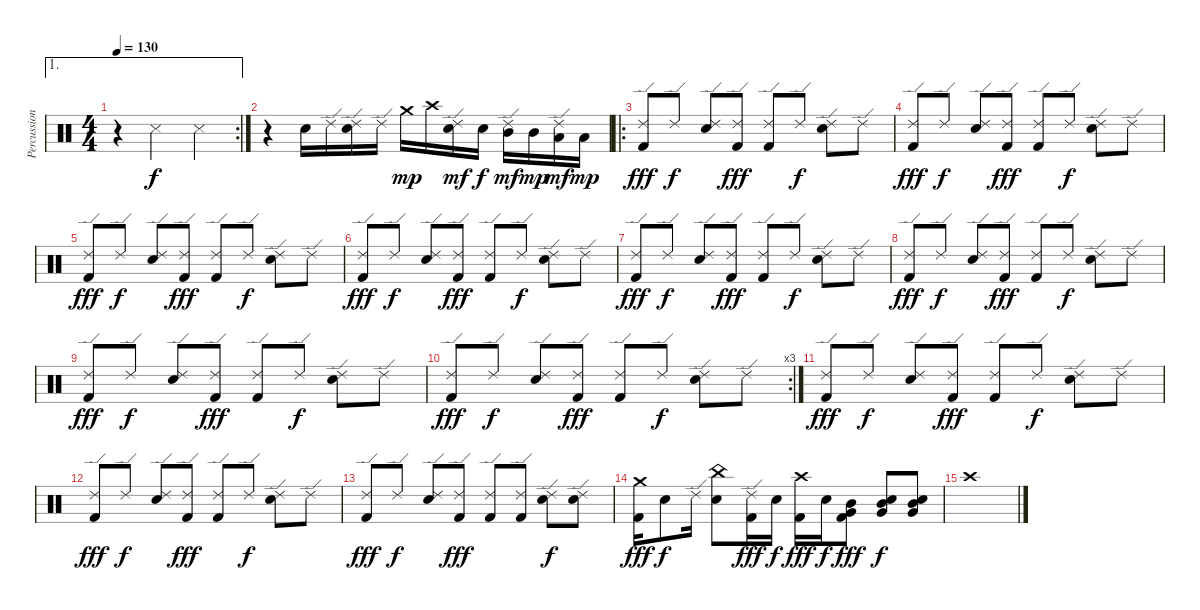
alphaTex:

\track ("Percussion" "Percussion") {instrument percussion}
\staff {score}
\articulation defaults
\ae 1
\rc 2
\ts (4 4)
\tempo 130
\clef neutral
\ks c
r.4{dy f} "Snare (side stick) 3".2 "Snare (side stick) 3".4 |
r.4 "Electric Snare (hit)".16 "Ride (edge) 2".16 ("Ride (edge) 2" "Electric Snare (hit)").16 "Ride (edge) 2".16 "Crash medium (hit)".16{dy mp} "Crash high (hit)".16 ("Ride (edge) 2" "Electric Snare (hit)").16{dy mf} "Electric Snare (hit)".16{dy f} ("Mid Tom (hit)" "Ride (edge) 2").16{dy mf} "Mid Tom (hit)".16{dy mp} ("Low Tom (hit)" "Ride (edge) 2").16{dy mf} "Low Tom (hit)".16{dy mp} |
\ro
("Ride (edge) 2" "Kick (hit) 2").8{dy fff} "Ride (edge) 2".8{dy f} ("Ride (edge) 2" "Electric Snare (hit)").8 ("Ride (edge) 2" "Kick (hit) 2").8{dy fff} ("Ride (edge) 2" "Kick (hit) 2").8 "Ride (edge) 2".8{dy f} ("Ride (edge) 2" "Electric Snare (hit)").8 "Ride (edge) 2".8 |
("Ride (edge) 2" "Kick (hit) 2").8{dy fff} "Ride (edge) 2".8{dy f} ("Ride (edge) 2" "Electric Snare (hit)").8 ("Ride (edge) 2" "Kick (hit) 2").8{dy fff} ("Ride (edge) 2" "Kick (hit) 2").8 "Ride (edge) 2".8{dy f} ("Ride (edge) 2" "Electric Snare (hit)").8 "Ride (edge) 2".8 |
("Ride (edge) 2" "Kick (hit) 2").8{dy fff} "Ride (edge) 2".8{dy f} ("Ride (edge) 2" "Electric Snare (hit)").8 ("Ride (edge) 2" "Kick (hit) 2").8{dy fff} ("Ride (edge) 2" "Kick (hit) 2").8 "Ride (edge) 2".8{dy f} ("Ride (edge) 2" "Electric Snare (hit)").8 "Ride (edge) 2".8 |
("Ride (edge) 2" "Kick (hit) 2").8{dy fff} "Ride (edge) 2".8{dy f} ("Ride (edge) 2" "Electric Snare (hit)").8 ("Ride (edge) 2" "Kick (hit) 2").8{dy fff} ("Ride (edge) 2" "Kick (hit) 2").8 "Ride (edge) 2".8{dy f} ("Ride (edge) 2" "Electric Snare (hit)").8 "Ride (edge) 2".8 |
("Ride (edge) 2" "Kick (hit) 2").8{dy fff} "Ride (edge) 2".8{dy f} ("Ride (edge) 2" "Electric Snare (hit)").8 ("Ride (edge) 2" "Kick (hit) 2").8{dy fff} ("Ride (edge) 2" "Kick (hit) 2").8 "Ride (edge) 2".8{dy f} ("Ride (edge) 2" "Electric Snare (hit)").8 "Ride (edge) 2".8 |
("Ride (edge) 2" "Kick (hit) 2").8{dy fff} "Ride (edge) 2".8{dy f} ("Ride (edge) 2" "Electric Snare (hit)").8 ("Ride (edge) 2" "Kick (hit) 2").8{dy fff} ("Ride (edge) 2" "Kick (hit) 2").8 "Ride (edge) 2".8{dy f} ("Ride (edge) 2" "Electric Snare (hit)").8 "Ride (edge) 2".8 |
("Ride (edge) 2" "Kick (hit) 2").8{dy fff} "Ride (edge) 2".8{dy f} ("Ride (edge) 2" "Electric Snare (hit)").8 ("Ride (edge) 2" "Kick (hit) 2").8{dy fff} ("Ride (edge) 2" "Kick (hit) 2").8 "Ride (edge) 2".8{dy f} ("Ride (edge) 2" "Electric Snare (hit)").8 "Ride (edge) 2".8 |
\rc 3
("Ride (edge) 2" "Kick (hit) 2").8{dy fff} "Ride (edge) 2".8{dy f} ("Ride (edge) 2" "Electric Snare (hit)").8 ("Ride (edge) 2" "Kick (hit) 2").8{dy fff} ("Ride (edge) 2" "Kick (hit) 2").8 "Ride (edge) 2".8{dy f} ("Ride (edge) 2" "Electric Snare (hit)").8 "Ride (edge) 2".8 |
("Ride (edge) 2" "Kick (hit) 2").8{dy fff} "Ride (edge) 2".8{dy f} ("Ride (edge) 2" "Electric Snare (hit)").8 ("Ride (edge) 2" "Kick (hit) 2").8{dy fff} ("Ride (edge) 2" "Kick (hit) 2").8 "Ride (edge) 2".8{dy f} ("Ride (edge) 2" "Electric Snare (hit)").8 "Ride (edge) 2".8 |
("Ride (edge) 2" "Kick (hit) 2").8{dy fff} "Ride (edge) 2".8{dy f} ("Ride (edge) 2" "Electric Snare (hit)").8 ("Ride (edge) 2" "Kick (hit) 2").8{dy fff} ("Ride (edge) 2" "Kick (hit) 2").8 "Ride (edge) 2".8{dy f} ("Ride (edge) 2" "Electric Snare (hit)").8 "Ride (edge) 2".8 |
("Ride (edge) 2" "Kick (hit) 2").8{dy fff} "Ride (edge) 2".8{dy f} ("Ride (edge) 2" "Electric Snare (hit)").8 ("Ride (edge) 2" "Kick (hit) 2").8{dy fff} ("Ride (edge) 2" "Kick (hit) 2").8 ("Ride (edge) 2" "Kick (hit) 2").8 ("Ride (edge) 2" "Electric Snare (hit)").8{dy f} ("Ride (edge) 2" "Electric Snare (hit)").8 |
("Crash medium (hit)" "Kick (hit) 2").16{dy fff} "Electric Snare (hit)".8{dy f} "Ride (edge) 2".16 ("China (hit)" "Electric Snare (hit)").8 ("Ride (edge) 2" "Kick (hit) 2").16{dy fff} "Electric Snare (hit)".16{dy f} ("Crash high (hit)" "Kick (hit) 2").16{dy fff} "Electric Snare (hit)".16{dy f} ("Very Low Tom (hit)" "Mid Tom (hit)" "Kick (hit) 2").8{dy fff} ("Very Low Tom (hit)" "Mid Tom (hit)" "Electric Snare (hit)").8{dy f} ("Very Low Tom (hit)" "Mid Tom (hit)" "Electric Snare (hit)").8 |
"Crash high (hit)".1
